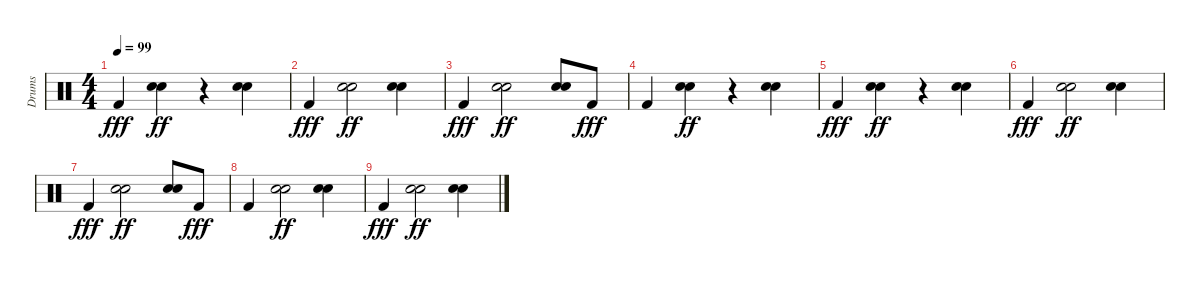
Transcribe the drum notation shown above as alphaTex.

\track ("Drums" "Drums") {instrument percussion}
\staff {score}
\articulation defaults
\ts (4 4)
\tempo 99
\clef neutral
\ks c "Kick (hit) 2".4{dy fff}
("Snare (hit) 2" "Hand Clap (hit)").4{dy ff} r.4{volume 7} ("Snare (hit) 2" "Hand Clap (hit)").4 |
"Kick (hit) 2".4{dy fff} ("Snare (hit) 2" "Hand Clap (hit)").2{dy ff} ("Snare (hit) 2" "Hand Clap (hit)").4 |
"Kick (hit) 2".4{dy fff} ("Snare (hit) 2" "Hand Clap (hit)").2{dy ff} ("Snare (hit) 2" "Hand Clap (hit)").8 "Kick (hit) 2".8{dy fff} |
"Kick (hit) 2".4 ("Snare (hit) 2" "Hand Clap (hit)").4{dy ff} r.4 ("Snare (hit) 2" "Hand Clap (hit)").4 |
"Kick (hit) 2".4{dy fff} ("Snare (hit) 2" "Hand Clap (hit)").4{dy ff} r.4{volume 1} ("Snare (hit) 2" "Hand Clap (hit)").4 |
"Kick (hit) 2".4{dy fff} ("Snare (hit) 2" "Hand Clap (hit)").2{dy ff} ("Snare (hit) 2" "Hand Clap (hit)").4 |
"Kick (hit) 2".4{dy fff} ("Snare (hit) 2" "Hand Clap (hit)").2{dy ff} ("Snare (hit) 2" "Hand Clap (hit)").8 "Kick (hit) 2".8{dy fff} |
"Kick (hit) 2".4 ("Snare (hit) 2" "Hand Clap (hit)").2{dy ff} ("Snare (hit) 2" "Hand Clap (hit)").4 |
"Kick (hit) 2".4{dy fff} ("Snare (hit) 2" "Hand Clap (hit)").2{dy ff} ("Snare (hit) 2" "Hand Clap (hit)").4
